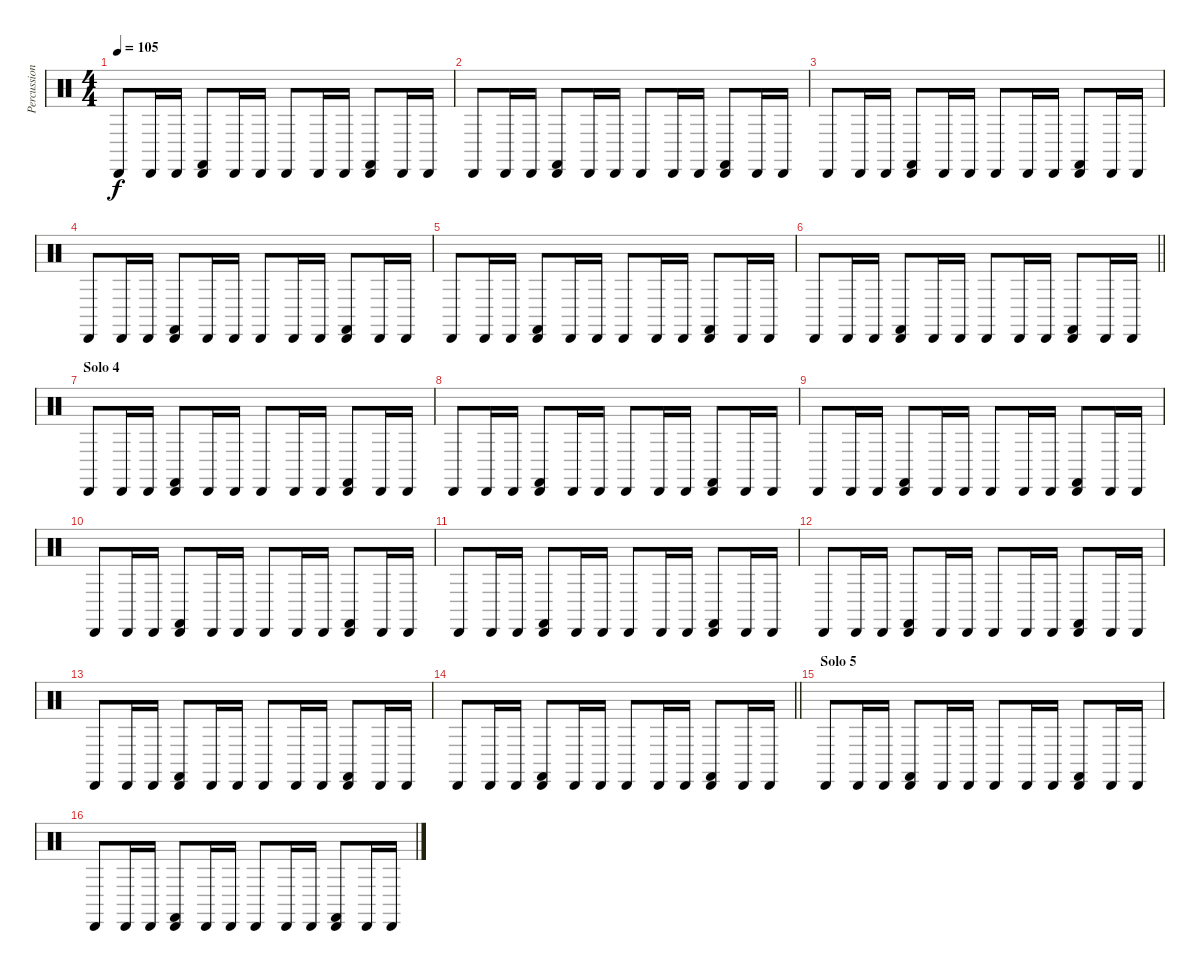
\track ("Percussion" "Percussion") {instrument percussion}
\staff {score}
\articulation defaults
\ts (4 4)
\tempo 105
\clef neutral
\ks c "Cabasa (hit)".8{dy f} "Cabasa (hit)".16 "Cabasa (hit)".16
("Cabasa (hit)" "Castanets (hit)").8 "Cabasa (hit)".16 "Cabasa (hit)".16 "Cabasa (hit)".8 "Cabasa (hit)".16 "Cabasa (hit)".16 ("Cabasa (hit)" "Castanets (hit)").8 "Cabasa (hit)".16 "Cabasa (hit)".16 |
"Cabasa (hit)".8 "Cabasa (hit)".16 "Cabasa (hit)".16 ("Cabasa (hit)" "Castanets (hit)").8 "Cabasa (hit)".16 "Cabasa (hit)".16 "Cabasa (hit)".8 "Cabasa (hit)".16 "Cabasa (hit)".16 ("Cabasa (hit)" "Castanets (hit)").8 "Cabasa (hit)".16 "Cabasa (hit)".16 |
"Cabasa (hit)".8 "Cabasa (hit)".16 "Cabasa (hit)".16 ("Cabasa (hit)" "Castanets (hit)").8 "Cabasa (hit)".16 "Cabasa (hit)".16 "Cabasa (hit)".8 "Cabasa (hit)".16 "Cabasa (hit)".16 ("Cabasa (hit)" "Castanets (hit)").8 "Cabasa (hit)".16 "Cabasa (hit)".16 |
"Cabasa (hit)".8 "Cabasa (hit)".16 "Cabasa (hit)".16 ("Cabasa (hit)" "Castanets (hit)").8 "Cabasa (hit)".16 "Cabasa (hit)".16 "Cabasa (hit)".8 "Cabasa (hit)".16 "Cabasa (hit)".16 ("Cabasa (hit)" "Castanets (hit)").8 "Cabasa (hit)".16 "Cabasa (hit)".16 |
"Cabasa (hit)".8 "Cabasa (hit)".16 "Cabasa (hit)".16 ("Cabasa (hit)" "Castanets (hit)").8 "Cabasa (hit)".16 "Cabasa (hit)".16 "Cabasa (hit)".8 "Cabasa (hit)".16 "Cabasa (hit)".16 ("Cabasa (hit)" "Castanets (hit)").8 "Cabasa (hit)".16 "Cabasa (hit)".16 |
\barLineRight lightlight "Cabasa (hit)".8 "Cabasa (hit)".16 "Cabasa (hit)".16
("Cabasa (hit)" "Castanets (hit)").8 "Cabasa (hit)".16 "Cabasa (hit)".16 "Cabasa (hit)".8 "Cabasa (hit)".16 "Cabasa (hit)".16 ("Cabasa (hit)" "Castanets (hit)").8 "Cabasa (hit)".16 "Cabasa (hit)".16 |
\section ("" "Solo 4")
"Cabasa (hit)".8 "Cabasa (hit)".16 "Cabasa (hit)".16 ("Cabasa (hit)" "Castanets (hit)").8 "Cabasa (hit)".16 "Cabasa (hit)".16 "Cabasa (hit)".8 "Cabasa (hit)".16 "Cabasa (hit)".16 ("Cabasa (hit)" "Castanets (hit)").8 "Cabasa (hit)".16 "Cabasa (hit)".16 |
"Cabasa (hit)".8 "Cabasa (hit)".16 "Cabasa (hit)".16 ("Cabasa (hit)" "Castanets (hit)").8 "Cabasa (hit)".16 "Cabasa (hit)".16 "Cabasa (hit)".8 "Cabasa (hit)".16 "Cabasa (hit)".16 ("Cabasa (hit)" "Castanets (hit)").8 "Cabasa (hit)".16 "Cabasa (hit)".16 |
"Cabasa (hit)".8 "Cabasa (hit)".16 "Cabasa (hit)".16 ("Cabasa (hit)" "Castanets (hit)").8 "Cabasa (hit)".16 "Cabasa (hit)".16 "Cabasa (hit)".8 "Cabasa (hit)".16 "Cabasa (hit)".16 ("Cabasa (hit)" "Castanets (hit)").8 "Cabasa (hit)".16 "Cabasa (hit)".16 |
"Cabasa (hit)".8 "Cabasa (hit)".16 "Cabasa (hit)".16 ("Cabasa (hit)" "Castanets (hit)").8 "Cabasa (hit)".16 "Cabasa (hit)".16 "Cabasa (hit)".8 "Cabasa (hit)".16 "Cabasa (hit)".16 ("Cabasa (hit)" "Castanets (hit)").8 "Cabasa (hit)".16 "Cabasa (hit)".16 |
"Cabasa (hit)".8 "Cabasa (hit)".16 "Cabasa (hit)".16 ("Cabasa (hit)" "Castanets (hit)").8 "Cabasa (hit)".16 "Cabasa (hit)".16 "Cabasa (hit)".8 "Cabasa (hit)".16 "Cabasa (hit)".16 ("Cabasa (hit)" "Castanets (hit)").8 "Cabasa (hit)".16 "Cabasa (hit)".16 |
"Cabasa (hit)".8 "Cabasa (hit)".16 "Cabasa (hit)".16 ("Cabasa (hit)" "Castanets (hit)").8 "Cabasa (hit)".16 "Cabasa (hit)".16 "Cabasa (hit)".8 "Cabasa (hit)".16 "Cabasa (hit)".16 ("Cabasa (hit)" "Castanets (hit)").8 "Cabasa (hit)".16 "Cabasa (hit)".16 |
"Cabasa (hit)".8 "Cabasa (hit)".16 "Cabasa (hit)".16 ("Cabasa (hit)" "Castanets (hit)").8 "Cabasa (hit)".16 "Cabasa (hit)".16 "Cabasa (hit)".8 "Cabasa (hit)".16 "Cabasa (hit)".16 ("Cabasa (hit)" "Castanets (hit)").8 "Cabasa (hit)".16 "Cabasa (hit)".16 |
\barLineRight lightlight "Cabasa (hit)".8 "Cabasa (hit)".16 "Cabasa (hit)".16
("Cabasa (hit)" "Castanets (hit)").8 "Cabasa (hit)".16 "Cabasa (hit)".16 "Cabasa (hit)".8 "Cabasa (hit)".16 "Cabasa (hit)".16 ("Cabasa (hit)" "Castanets (hit)").8 "Cabasa (hit)".16 "Cabasa (hit)".16 |
\section ("" "Solo 5")
"Cabasa (hit)".8 "Cabasa (hit)".16 "Cabasa (hit)".16 ("Cabasa (hit)" "Castanets (hit)").8 "Cabasa (hit)".16 "Cabasa (hit)".16 "Cabasa (hit)".8 "Cabasa (hit)".16 "Cabasa (hit)".16 ("Cabasa (hit)" "Castanets (hit)").8 "Cabasa (hit)".16 "Cabasa (hit)".16 |
"Cabasa (hit)".8 "Cabasa (hit)".16 "Cabasa (hit)".16 ("Cabasa (hit)" "Castanets (hit)").8 "Cabasa (hit)".16 "Cabasa (hit)".16 "Cabasa (hit)".8 "Cabasa (hit)".16 "Cabasa (hit)".16 ("Cabasa (hit)" "Castanets (hit)").8 "Cabasa (hit)".16 "Cabasa (hit)".16
